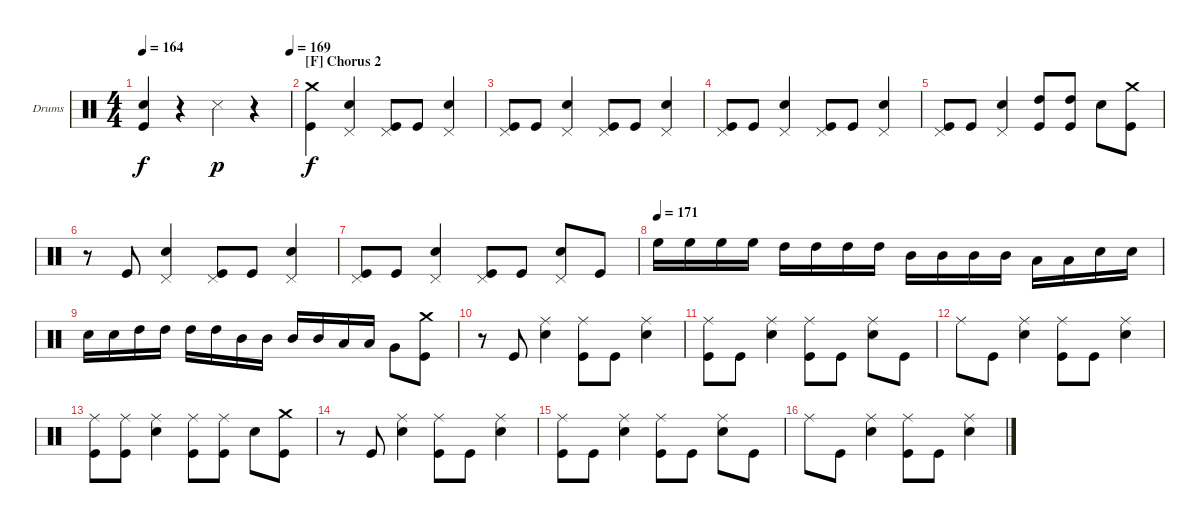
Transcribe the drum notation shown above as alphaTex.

\bracketExtendMode groupsimilarinstruments
\firstSystemTrackNameOrientation horizontal
\otherSystemsTrackNameOrientation horizontal
\track ("Vinny Appice" "Drums") {instrument percussion}
\staff {score}
\articulation defaults
\ts (4 4)
\tempo 164
\tempo (169 1)
\clef neutral
\ks c
("Snare (hit) 2" "Kick (hit)").4{dy f} r.4 "Snare (side stick) 3".4{dy p} r.4 |
\section ("F" "Chorus 2")
("Crash medium (hit)" "Kick (hit)").4{dy f} ("Pedal Hi-Hat (hit)" "Snare (hit) 2").4 ("Pedal Hi-Hat (hit)" "Kick (hit)").8 "Kick (hit)".8 ("Pedal Hi-Hat (hit)" "Snare (hit) 2").4 |
("Pedal Hi-Hat (hit)" "Kick (hit)").8 "Kick (hit)".8 ("Pedal Hi-Hat (hit)" "Snare (hit) 2").4 ("Pedal Hi-Hat (hit)" "Kick (hit)").8 "Kick (hit)".8 ("Pedal Hi-Hat (hit)" "Snare (hit) 2").4 |
("Pedal Hi-Hat (hit)" "Kick (hit)").8 "Kick (hit)".8 ("Pedal Hi-Hat (hit)" "Snare (hit) 2").4 ("Pedal Hi-Hat (hit)" "Kick (hit)").8 "Kick (hit)".8 ("Pedal Hi-Hat (hit)" "Snare (hit) 2").4 |
("Pedal Hi-Hat (hit)" "Kick (hit)").8 "Kick (hit)".8 ("Pedal Hi-Hat (hit)" "Snare (hit) 2").4 ("High Tom (hit)" "Kick (hit)").8 ("High Tom (hit)" "Kick (hit)").8 "Snare (hit) 2".8 ("Crash medium (hit)" "Kick (hit)").8 |
r.8 "Kick (hit)".8 ("Pedal Hi-Hat (hit)" "Snare (hit) 2").4 ("Pedal Hi-Hat (hit)" "Kick (hit)").8 "Kick (hit)".8 ("Pedal Hi-Hat (hit)" "Snare (hit) 2").4 |
("Pedal Hi-Hat (hit)" "Kick (hit)").8 "Kick (hit)".8 ("Pedal Hi-Hat (hit)" "Snare (hit) 2").4 ("Pedal Hi-Hat (hit)" "Kick (hit)").8 "Kick (hit)".8 ("Pedal Hi-Hat (hit)" "Snare (hit) 2").8 "Kick (hit)".8 |
\tempo (171)
"High Floor Tom (hit)".16 "High Floor Tom (hit)".16 "High Floor Tom (hit)".16 "High Floor Tom (hit)".16 "High Tom (hit)".16 "High Tom (hit)".16 "High Tom (hit)".16 "High Tom (hit)".16 "Mid Tom (hit)".16 "Mid Tom (hit)".16 "Mid Tom (hit)".16 "Mid Tom (hit)".16 "Low Tom (hit)".16 "Low Tom (hit)".16 "Snare (hit) 2".16 "Snare (hit) 2".16 |
"Snare (hit) 2".16 "Snare (hit) 2".16 "High Tom (hit)".16 "High Tom (hit)".16 "High Tom (hit)".16 "High Tom (hit)".16 "Mid Tom (hit)".16 "Mid Tom (hit)".16 "Mid Tom (hit)".16 "Mid Tom (hit)".16 "Low Tom (hit)".16 "Low Tom (hit)".16 "Very Low Tom (hit)".8 ("Kick (hit)" "Crash medium (hit)").8 |
r.8 "Kick (hit)".8 ("Snare (hit) 2" "Ride (middle)").4 ("Kick (hit)" "Ride (middle)").8 "Kick (hit)".8 ("Ride (middle)" "Snare (hit) 2").4 |
("Ride (middle)" "Kick (hit)").8 "Kick (hit)".8 ("Ride (middle)" "Snare (hit) 2").4 ("Ride (middle)" "Kick (hit)").8 "Kick (hit)".8 ("Ride (middle)" "Snare (hit) 2").8 "Kick (hit)".8 |
"Ride (middle)".8 "Kick (hit)".8 ("Ride (middle)" "Snare (hit) 2").4 ("Ride (middle)" "Kick (hit)").8 "Kick (hit)".8 ("Snare (hit) 2" "Ride (middle)").4 |
("Ride (middle)" "Kick (hit)").8 ("Ride (middle)" "Kick (hit)").8 ("Ride (middle)" "Snare (hit) 2").4 ("Ride (middle)" "Kick (hit)").8 ("Ride (middle)" "Kick (hit)").8 "Snare (hit) 2".8 ("Crash medium (hit)" "Kick (hit)").8 |
r.8 "Kick (hit)".8 ("Snare (hit) 2" "Ride (middle)").4 ("Kick (hit)" "Ride (middle)").8 "Kick (hit)".8 ("Snare (hit) 2" "Ride (middle)").4 |
("Kick (hit)" "Ride (middle)").8 "Kick (hit)".8 ("Ride (middle)" "Snare (hit) 2").4 ("Ride (middle)" "Kick (hit)").8 "Kick (hit)".8 ("Ride (middle)" "Snare (hit) 2").8 "Kick (hit)".8 |
"Ride (middle)".8 "Kick (hit)".8 ("Ride (middle)" "Snare (hit) 2").4 ("Ride (middle)" "Kick (hit)").8 "Kick (hit)".8 ("Ride (middle)" "Snare (hit) 2").4
